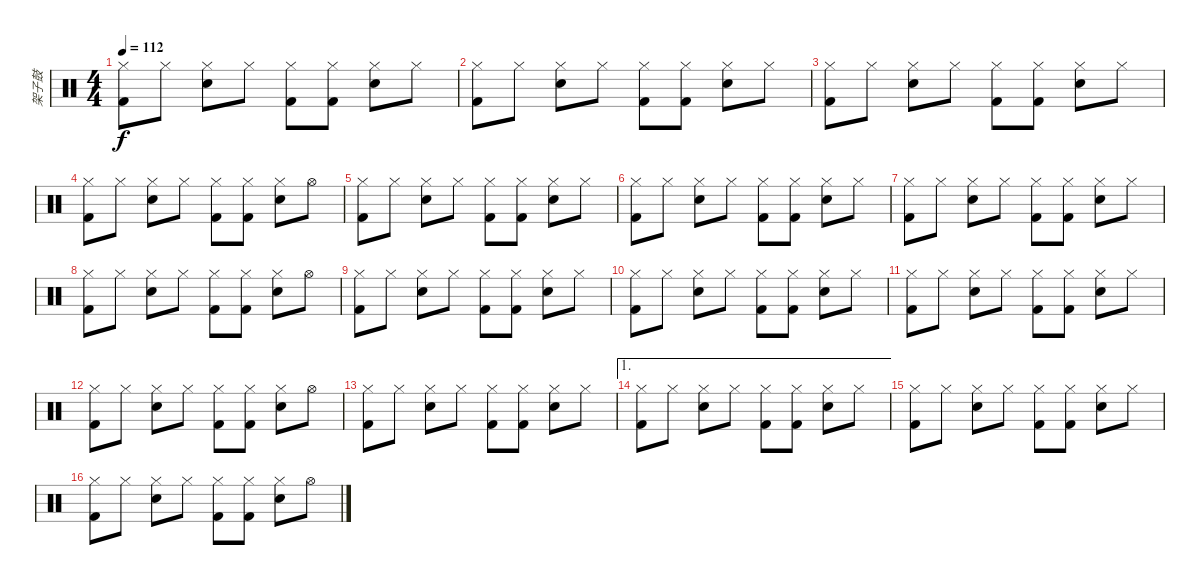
\track ("架子鼓" "架子鼓") {instrument percussion}
\staff {score}
\articulation defaults
\ts (4 4)
\tempo 112
\clef neutral
\ks c
("Hi-Hat (closed)" "Kick (hit) 2").8{dy f} "Hi-Hat (closed)".8 ("Hi-Hat (closed)" "Snare (hit) 2").8 "Hi-Hat (closed)".8 ("Hi-Hat (closed)" "Kick (hit) 2").8 ("Hi-Hat (closed)" "Kick (hit) 2").8 ("Hi-Hat (closed)" "Snare (hit) 2").8 "Hi-Hat (closed)".8 |
("Hi-Hat (closed)" "Kick (hit) 2").8 "Hi-Hat (closed)".8 ("Hi-Hat (closed)" "Snare (hit) 2").8 "Hi-Hat (closed)".8 ("Hi-Hat (closed)" "Kick (hit) 2").8 ("Hi-Hat (closed)" "Kick (hit) 2").8 ("Hi-Hat (closed)" "Snare (hit) 2").8 "Hi-Hat (closed)".8 |
("Hi-Hat (closed)" "Kick (hit) 2").8 "Hi-Hat (closed)".8 ("Hi-Hat (closed)" "Snare (hit) 2").8 "Hi-Hat (closed)".8 ("Hi-Hat (closed)" "Kick (hit) 2").8 ("Hi-Hat (closed)" "Kick (hit) 2").8 ("Hi-Hat (closed)" "Snare (hit) 2").8 "Hi-Hat (closed)".8 |
("Hi-Hat (closed)" "Kick (hit) 2").8 "Hi-Hat (closed)".8 ("Hi-Hat (closed)" "Snare (hit) 2").8 "Hi-Hat (closed)".8 ("Hi-Hat (closed)" "Kick (hit) 2").8 ("Hi-Hat (closed)" "Kick (hit) 2").8 ("Hi-Hat (closed)" "Snare (hit) 2").8 "Hi-Hat (open)".8 |
("Hi-Hat (closed)" "Kick (hit) 2").8 "Hi-Hat (closed)".8 ("Hi-Hat (closed)" "Snare (hit) 2").8 "Hi-Hat (closed)".8 ("Hi-Hat (closed)" "Kick (hit) 2").8 ("Hi-Hat (closed)" "Kick (hit) 2").8 ("Hi-Hat (closed)" "Snare (hit) 2").8 "Hi-Hat (closed)".8 |
("Hi-Hat (closed)" "Kick (hit) 2").8 "Hi-Hat (closed)".8 ("Hi-Hat (closed)" "Snare (hit) 2").8 "Hi-Hat (closed)".8 ("Hi-Hat (closed)" "Kick (hit) 2").8 ("Hi-Hat (closed)" "Kick (hit) 2").8 ("Hi-Hat (closed)" "Snare (hit) 2").8 "Hi-Hat (closed)".8 |
("Hi-Hat (closed)" "Kick (hit) 2").8 "Hi-Hat (closed)".8 ("Hi-Hat (closed)" "Snare (hit) 2").8 "Hi-Hat (closed)".8 ("Hi-Hat (closed)" "Kick (hit) 2").8 ("Hi-Hat (closed)" "Kick (hit) 2").8 ("Hi-Hat (closed)" "Snare (hit) 2").8 "Hi-Hat (closed)".8 |
("Hi-Hat (closed)" "Kick (hit) 2").8 "Hi-Hat (closed)".8 ("Hi-Hat (closed)" "Snare (hit) 2").8 "Hi-Hat (closed)".8 ("Hi-Hat (closed)" "Kick (hit) 2").8 ("Hi-Hat (closed)" "Kick (hit) 2").8 ("Hi-Hat (closed)" "Snare (hit) 2").8 "Hi-Hat (open)".8 |
("Hi-Hat (closed)" "Kick (hit) 2").8 "Hi-Hat (closed)".8 ("Hi-Hat (closed)" "Snare (hit) 2").8 "Hi-Hat (closed)".8 ("Hi-Hat (closed)" "Kick (hit) 2").8 ("Hi-Hat (closed)" "Kick (hit) 2").8 ("Hi-Hat (closed)" "Snare (hit) 2").8 "Hi-Hat (closed)".8 |
("Hi-Hat (closed)" "Kick (hit) 2").8 "Hi-Hat (closed)".8 ("Hi-Hat (closed)" "Snare (hit) 2").8 "Hi-Hat (closed)".8 ("Hi-Hat (closed)" "Kick (hit) 2").8 ("Hi-Hat (closed)" "Kick (hit) 2").8 ("Hi-Hat (closed)" "Snare (hit) 2").8 "Hi-Hat (closed)".8 |
("Hi-Hat (closed)" "Kick (hit) 2").8 "Hi-Hat (closed)".8 ("Hi-Hat (closed)" "Snare (hit) 2").8 "Hi-Hat (closed)".8 ("Hi-Hat (closed)" "Kick (hit) 2").8 ("Hi-Hat (closed)" "Kick (hit) 2").8 ("Hi-Hat (closed)" "Snare (hit) 2").8 "Hi-Hat (closed)".8 |
("Hi-Hat (closed)" "Kick (hit) 2").8 "Hi-Hat (closed)".8 ("Hi-Hat (closed)" "Snare (hit) 2").8 "Hi-Hat (closed)".8 ("Hi-Hat (closed)" "Kick (hit) 2").8 ("Hi-Hat (closed)" "Kick (hit) 2").8 ("Hi-Hat (closed)" "Snare (hit) 2").8 "Hi-Hat (open)".8 |
("Hi-Hat (closed)" "Kick (hit) 2").8 "Hi-Hat (closed)".8 ("Hi-Hat (closed)" "Snare (hit) 2").8 "Hi-Hat (closed)".8 ("Hi-Hat (closed)" "Kick (hit) 2").8 ("Hi-Hat (closed)" "Kick (hit) 2").8 ("Hi-Hat (closed)" "Snare (hit) 2").8 "Hi-Hat (closed)".8 |
\ae 1
("Hi-Hat (closed)" "Kick (hit) 2").8 "Hi-Hat (closed)".8 ("Hi-Hat (closed)" "Snare (hit) 2").8 "Hi-Hat (closed)".8 ("Hi-Hat (closed)" "Kick (hit) 2").8 ("Hi-Hat (closed)" "Kick (hit) 2").8 ("Hi-Hat (closed)" "Snare (hit) 2").8 "Hi-Hat (closed)".8 |
("Hi-Hat (closed)" "Kick (hit) 2").8 "Hi-Hat (closed)".8 ("Hi-Hat (closed)" "Snare (hit) 2").8 "Hi-Hat (closed)".8 ("Hi-Hat (closed)" "Kick (hit) 2").8 ("Hi-Hat (closed)" "Kick (hit) 2").8 ("Hi-Hat (closed)" "Snare (hit) 2").8 "Hi-Hat (closed)".8 |
("Hi-Hat (closed)" "Kick (hit) 2").8 "Hi-Hat (closed)".8 ("Hi-Hat (closed)" "Snare (hit) 2").8 "Hi-Hat (closed)".8 ("Hi-Hat (closed)" "Kick (hit) 2").8 ("Hi-Hat (closed)" "Kick (hit) 2").8 ("Hi-Hat (closed)" "Snare (hit) 2").8 "Hi-Hat (open)".8
